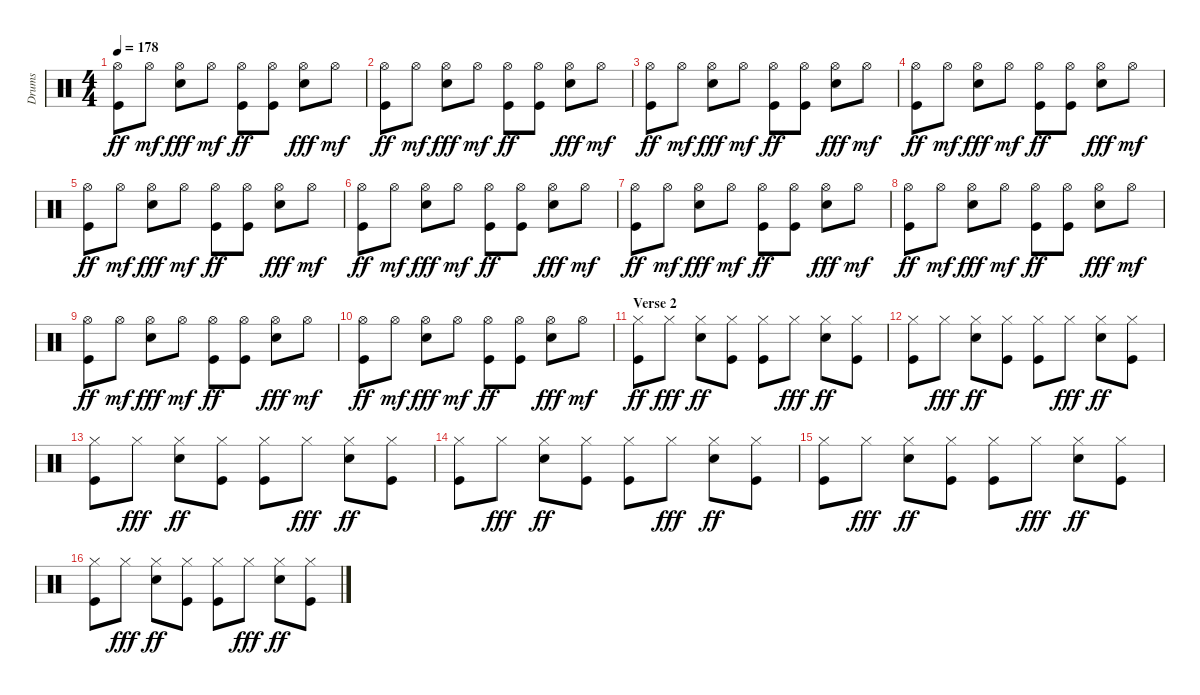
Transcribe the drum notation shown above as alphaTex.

\track ("Drums" "Drums") {instrument percussion}
\staff {score}
\articulation defaults
\ts (4 4)
\tempo 178
\clef neutral
\ks c
("Hi-Hat (open)" "Kick (hit)").8{dy ff} "Hi-Hat (open)".8{dy mf} ("Hi-Hat (open)" "Snare (hit) 2").8{dy fff} "Hi-Hat (open)".8{dy mf} ("Hi-Hat (open)" "Kick (hit)").8{dy ff} ("Hi-Hat (open)" "Kick (hit)").8 ("Hi-Hat (open)" "Snare (hit) 2").8{dy fff} "Hi-Hat (open)".8{dy mf} |
("Hi-Hat (open)" "Kick (hit)").8{dy ff} "Hi-Hat (open)".8{dy mf} ("Hi-Hat (open)" "Snare (hit) 2").8{dy fff} "Hi-Hat (open)".8{dy mf} ("Hi-Hat (open)" "Kick (hit)").8{dy ff} ("Hi-Hat (open)" "Kick (hit)").8 ("Hi-Hat (open)" "Snare (hit) 2").8{dy fff} "Hi-Hat (open)".8{dy mf} |
("Hi-Hat (open)" "Kick (hit)").8{dy ff} "Hi-Hat (open)".8{dy mf} ("Hi-Hat (open)" "Snare (hit) 2").8{dy fff} "Hi-Hat (open)".8{dy mf} ("Hi-Hat (open)" "Kick (hit)").8{dy ff} ("Hi-Hat (open)" "Kick (hit)").8 ("Hi-Hat (open)" "Snare (hit) 2").8{dy fff} "Hi-Hat (open)".8{dy mf} |
("Hi-Hat (open)" "Kick (hit)").8{dy ff} "Hi-Hat (open)".8{dy mf} ("Hi-Hat (open)" "Snare (hit) 2").8{dy fff} "Hi-Hat (open)".8{dy mf} ("Hi-Hat (open)" "Kick (hit)").8{dy ff} ("Hi-Hat (open)" "Kick (hit)").8 ("Hi-Hat (open)" "Snare (hit) 2").8{dy fff} "Hi-Hat (open)".8{dy mf} |
("Hi-Hat (open)" "Kick (hit)").8{dy ff} "Hi-Hat (open)".8{dy mf} ("Hi-Hat (open)" "Snare (hit) 2").8{dy fff} "Hi-Hat (open)".8{dy mf} ("Hi-Hat (open)" "Kick (hit)").8{dy ff} ("Hi-Hat (open)" "Kick (hit)").8 ("Hi-Hat (open)" "Snare (hit) 2").8{dy fff} "Hi-Hat (open)".8{dy mf} |
("Hi-Hat (open)" "Kick (hit)").8{dy ff} "Hi-Hat (open)".8{dy mf} ("Hi-Hat (open)" "Snare (hit) 2").8{dy fff} "Hi-Hat (open)".8{dy mf} ("Hi-Hat (open)" "Kick (hit)").8{dy ff} ("Hi-Hat (open)" "Kick (hit)").8 ("Hi-Hat (open)" "Snare (hit) 2").8{dy fff} "Hi-Hat (open)".8{dy mf} |
("Hi-Hat (open)" "Kick (hit)").8{dy ff} "Hi-Hat (open)".8{dy mf} ("Hi-Hat (open)" "Snare (hit) 2").8{dy fff} "Hi-Hat (open)".8{dy mf} ("Hi-Hat (open)" "Kick (hit)").8{dy ff} ("Hi-Hat (open)" "Kick (hit)").8 ("Hi-Hat (open)" "Snare (hit) 2").8{dy fff} "Hi-Hat (open)".8{dy mf} |
("Hi-Hat (open)" "Kick (hit)").8{dy ff} "Hi-Hat (open)".8{dy mf} ("Hi-Hat (open)" "Snare (hit) 2").8{dy fff} "Hi-Hat (open)".8{dy mf} ("Hi-Hat (open)" "Kick (hit)").8{dy ff} ("Hi-Hat (open)" "Kick (hit)").8 ("Hi-Hat (open)" "Snare (hit) 2").8{dy fff} "Hi-Hat (open)".8{dy mf} |
("Hi-Hat (open)" "Kick (hit)").8{dy ff} "Hi-Hat (open)".8{dy mf} ("Hi-Hat (open)" "Snare (hit) 2").8{dy fff} "Hi-Hat (open)".8{dy mf} ("Hi-Hat (open)" "Kick (hit)").8{dy ff} ("Hi-Hat (open)" "Kick (hit)").8 ("Hi-Hat (open)" "Snare (hit) 2").8{dy fff} "Hi-Hat (open)".8{dy mf} |
("Hi-Hat (open)" "Kick (hit)").8{dy ff} "Hi-Hat (open)".8{dy mf} ("Hi-Hat (open)" "Snare (hit) 2").8{dy fff} "Hi-Hat (open)".8{dy mf} ("Hi-Hat (open)" "Kick (hit)").8{dy ff} ("Hi-Hat (open)" "Kick (hit)").8 ("Hi-Hat (open)" "Snare (hit) 2").8{dy fff} "Hi-Hat (open)".8{dy mf} |
\section ("" "Verse 2")
("Hi-Hat (closed)" "Kick (hit)").8{dy ff} "Hi-Hat (closed)".8{dy fff} ("Hi-Hat (closed)" "Snare (hit) 2").8{dy ff} ("Hi-Hat (closed)" "Kick (hit)").8 ("Hi-Hat (closed)" "Kick (hit)").8 "Hi-Hat (closed)".8{dy fff} ("Hi-Hat (closed)" "Snare (hit) 2").8{dy ff} ("Hi-Hat (closed)" "Kick (hit)").8 |
("Hi-Hat (closed)" "Kick (hit)").8 "Hi-Hat (closed)".8{dy fff} ("Hi-Hat (closed)" "Snare (hit) 2").8{dy ff} ("Hi-Hat (closed)" "Kick (hit)").8 ("Hi-Hat (closed)" "Kick (hit)").8 "Hi-Hat (closed)".8{dy fff} ("Hi-Hat (closed)" "Snare (hit) 2").8{dy ff} ("Hi-Hat (closed)" "Kick (hit)").8 |
("Hi-Hat (closed)" "Kick (hit)").8 "Hi-Hat (closed)".8{dy fff} ("Hi-Hat (closed)" "Snare (hit) 2").8{dy ff} ("Hi-Hat (closed)" "Kick (hit)").8 ("Hi-Hat (closed)" "Kick (hit)").8 "Hi-Hat (closed)".8{dy fff} ("Hi-Hat (closed)" "Snare (hit) 2").8{dy ff} ("Hi-Hat (closed)" "Kick (hit)").8 |
("Hi-Hat (closed)" "Kick (hit)").8 "Hi-Hat (closed)".8{dy fff} ("Hi-Hat (closed)" "Snare (hit) 2").8{dy ff} ("Hi-Hat (closed)" "Kick (hit)").8 ("Hi-Hat (closed)" "Kick (hit)").8 "Hi-Hat (closed)".8{dy fff} ("Hi-Hat (closed)" "Snare (hit) 2").8{dy ff} ("Hi-Hat (closed)" "Kick (hit)").8 |
("Hi-Hat (closed)" "Kick (hit)").8 "Hi-Hat (closed)".8{dy fff} ("Hi-Hat (closed)" "Snare (hit) 2").8{dy ff} ("Hi-Hat (closed)" "Kick (hit)").8 ("Hi-Hat (closed)" "Kick (hit)").8 "Hi-Hat (closed)".8{dy fff} ("Hi-Hat (closed)" "Snare (hit) 2").8{dy ff} ("Hi-Hat (closed)" "Kick (hit)").8 |
("Hi-Hat (closed)" "Kick (hit)").8 "Hi-Hat (closed)".8{dy fff} ("Hi-Hat (closed)" "Snare (hit) 2").8{dy ff} ("Hi-Hat (closed)" "Kick (hit)").8 ("Hi-Hat (closed)" "Kick (hit)").8 "Hi-Hat (closed)".8{dy fff} ("Hi-Hat (closed)" "Snare (hit) 2").8{dy ff} ("Hi-Hat (closed)" "Kick (hit)").8
